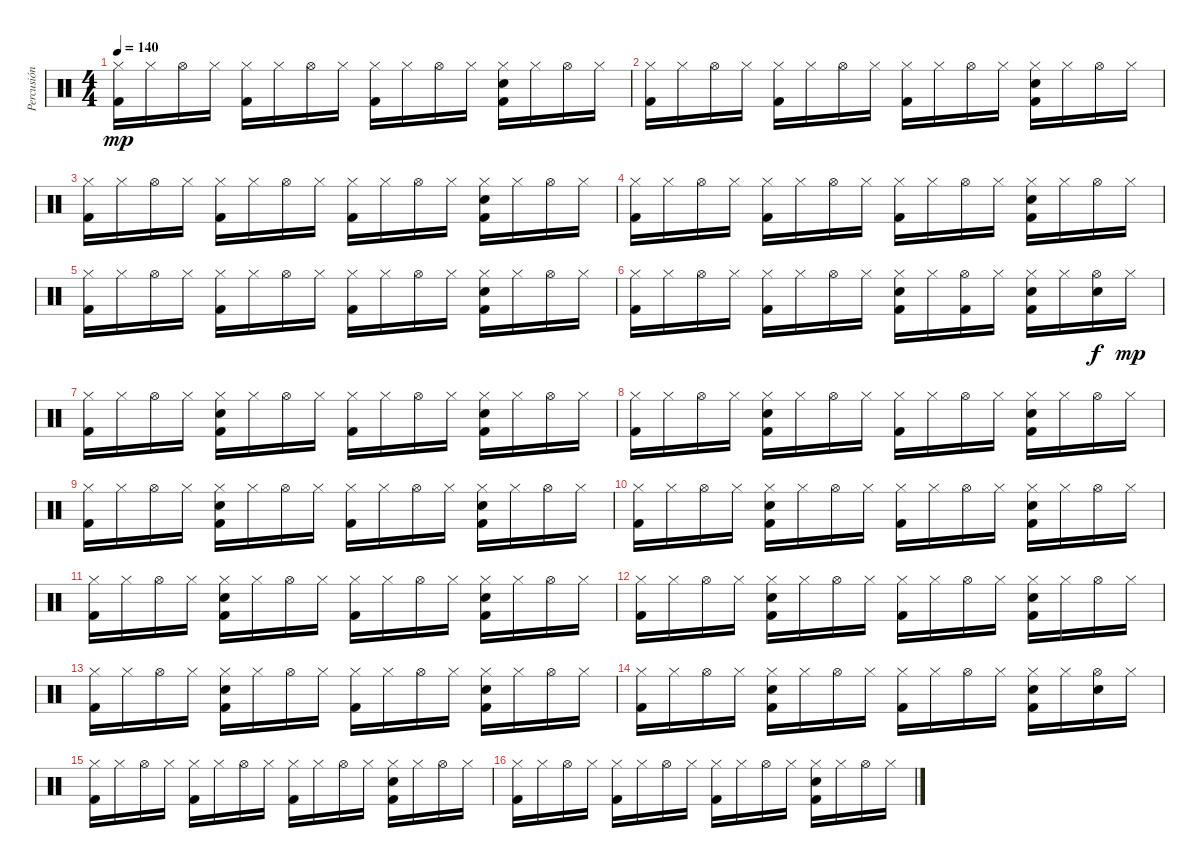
\track ("Percusión" "Percusión") {instrument percussion}
\staff {score}
\articulation defaults
\ts (4 4)
\tempo 140
\clef neutral
\ks c
("Hi-Hat (closed)" "Kick (hit) 2").16{dy mp} "Hi-Hat (closed)".16 "Hi-Hat (open)".16 "Hi-Hat (closed)".16 ("Hi-Hat (closed)" "Kick (hit) 2").16 "Hi-Hat (closed)".16 "Hi-Hat (open)".16 "Hi-Hat (closed)".16 ("Hi-Hat (closed)" "Kick (hit) 2").16 "Hi-Hat (closed)".16 "Hi-Hat (open)".16 "Hi-Hat (closed)".16 ("Hi-Hat (closed)" "Electric Snare (hit)" "Kick (hit) 2").16 "Hi-Hat (closed)".16 "Hi-Hat (open)".16 "Hi-Hat (closed)".16 |
("Hi-Hat (closed)" "Kick (hit) 2").16 "Hi-Hat (closed)".16 "Hi-Hat (open)".16 "Hi-Hat (closed)".16 ("Hi-Hat (closed)" "Kick (hit) 2").16 "Hi-Hat (closed)".16 "Hi-Hat (open)".16 "Hi-Hat (closed)".16 ("Hi-Hat (closed)" "Kick (hit) 2").16 "Hi-Hat (closed)".16 "Hi-Hat (open)".16 "Hi-Hat (closed)".16 ("Hi-Hat (closed)" "Electric Snare (hit)" "Kick (hit) 2").16 "Hi-Hat (closed)".16 "Hi-Hat (open)".16 "Hi-Hat (closed)".16 |
("Hi-Hat (closed)" "Kick (hit) 2").16 "Hi-Hat (closed)".16 "Hi-Hat (open)".16 "Hi-Hat (closed)".16 ("Hi-Hat (closed)" "Kick (hit) 2").16 "Hi-Hat (closed)".16 "Hi-Hat (open)".16 "Hi-Hat (closed)".16 ("Hi-Hat (closed)" "Kick (hit) 2").16 "Hi-Hat (closed)".16 "Hi-Hat (open)".16 "Hi-Hat (closed)".16 ("Hi-Hat (closed)" "Electric Snare (hit)" "Kick (hit) 2").16 "Hi-Hat (closed)".16 "Hi-Hat (open)".16 "Hi-Hat (closed)".16 |
("Hi-Hat (closed)" "Kick (hit) 2").16 "Hi-Hat (closed)".16 "Hi-Hat (open)".16 "Hi-Hat (closed)".16 ("Hi-Hat (closed)" "Kick (hit) 2").16 "Hi-Hat (closed)".16 "Hi-Hat (open)".16 "Hi-Hat (closed)".16 ("Hi-Hat (closed)" "Kick (hit) 2").16 "Hi-Hat (closed)".16 "Hi-Hat (open)".16 "Hi-Hat (closed)".16 ("Hi-Hat (closed)" "Electric Snare (hit)" "Kick (hit) 2").16 "Hi-Hat (closed)".16 "Hi-Hat (open)".16 "Hi-Hat (closed)".16 |
("Hi-Hat (closed)" "Kick (hit) 2").16 "Hi-Hat (closed)".16 "Hi-Hat (open)".16 "Hi-Hat (closed)".16 ("Hi-Hat (closed)" "Kick (hit) 2").16 "Hi-Hat (closed)".16 "Hi-Hat (open)".16 "Hi-Hat (closed)".16 ("Hi-Hat (closed)" "Kick (hit) 2").16 "Hi-Hat (closed)".16 "Hi-Hat (open)".16 "Hi-Hat (closed)".16 ("Hi-Hat (closed)" "Electric Snare (hit)" "Kick (hit) 2").16 "Hi-Hat (closed)".16 "Hi-Hat (open)".16 "Hi-Hat (closed)".16 |
("Hi-Hat (closed)" "Kick (hit) 2").16 "Hi-Hat (closed)".16 "Hi-Hat (open)".16 "Hi-Hat (closed)".16 ("Hi-Hat (closed)" "Kick (hit) 2").16 "Hi-Hat (closed)".16 "Hi-Hat (open)".16 "Hi-Hat (closed)".16 ("Hi-Hat (closed)" "Electric Snare (hit)" "Kick (hit) 2").16 "Hi-Hat (closed)".16 ("Hi-Hat (open)" "Kick (hit) 2").16 "Hi-Hat (closed)".16 ("Hi-Hat (closed)" "Electric Snare (hit)" "Kick (hit) 2").16 "Hi-Hat (closed)".16 ("Hi-Hat (open)" "Electric Snare (hit)").16{dy f} "Hi-Hat (closed)".16{dy mp} |
("Hi-Hat (closed)" "Kick (hit) 2").16 "Hi-Hat (closed)".16 "Hi-Hat (open)".16 "Hi-Hat (closed)".16 ("Hi-Hat (closed)" "Electric Snare (hit)" "Kick (hit) 2").16 "Hi-Hat (closed)".16 "Hi-Hat (open)".16 "Hi-Hat (closed)".16 ("Hi-Hat (closed)" "Kick (hit) 2").16 "Hi-Hat (closed)".16 "Hi-Hat (open)".16 "Hi-Hat (closed)".16 ("Hi-Hat (closed)" "Electric Snare (hit)" "Kick (hit) 2").16 "Hi-Hat (closed)".16 "Hi-Hat (open)".16 "Hi-Hat (closed)".16 |
("Hi-Hat (closed)" "Kick (hit) 2").16 "Hi-Hat (closed)".16 "Hi-Hat (open)".16 "Hi-Hat (closed)".16 ("Hi-Hat (closed)" "Electric Snare (hit)" "Kick (hit) 2").16 "Hi-Hat (closed)".16 "Hi-Hat (open)".16 "Hi-Hat (closed)".16 ("Hi-Hat (closed)" "Kick (hit) 2").16 "Hi-Hat (closed)".16 "Hi-Hat (open)".16 "Hi-Hat (closed)".16 ("Hi-Hat (closed)" "Electric Snare (hit)" "Kick (hit) 2").16 "Hi-Hat (closed)".16 "Hi-Hat (open)".16 "Hi-Hat (closed)".16 |
("Hi-Hat (closed)" "Kick (hit) 2").16 "Hi-Hat (closed)".16 "Hi-Hat (open)".16 "Hi-Hat (closed)".16 ("Hi-Hat (closed)" "Electric Snare (hit)" "Kick (hit) 2").16 "Hi-Hat (closed)".16 "Hi-Hat (open)".16 "Hi-Hat (closed)".16 ("Hi-Hat (closed)" "Kick (hit) 2").16 "Hi-Hat (closed)".16 "Hi-Hat (open)".16 "Hi-Hat (closed)".16 ("Hi-Hat (closed)" "Electric Snare (hit)" "Kick (hit) 2").16 "Hi-Hat (closed)".16 "Hi-Hat (open)".16 "Hi-Hat (closed)".16 |
("Hi-Hat (closed)" "Kick (hit) 2").16 "Hi-Hat (closed)".16 "Hi-Hat (open)".16 "Hi-Hat (closed)".16 ("Hi-Hat (closed)" "Electric Snare (hit)" "Kick (hit) 2").16 "Hi-Hat (closed)".16 "Hi-Hat (open)".16 "Hi-Hat (closed)".16 ("Hi-Hat (closed)" "Kick (hit) 2").16 "Hi-Hat (closed)".16 "Hi-Hat (open)".16 "Hi-Hat (closed)".16 ("Hi-Hat (closed)" "Electric Snare (hit)" "Kick (hit) 2").16 "Hi-Hat (closed)".16 "Hi-Hat (open)".16 "Hi-Hat (closed)".16 |
("Hi-Hat (closed)" "Kick (hit) 2").16 "Hi-Hat (closed)".16 "Hi-Hat (open)".16 "Hi-Hat (closed)".16 ("Hi-Hat (closed)" "Electric Snare (hit)" "Kick (hit) 2").16 "Hi-Hat (closed)".16 "Hi-Hat (open)".16 "Hi-Hat (closed)".16 ("Hi-Hat (closed)" "Kick (hit) 2").16 "Hi-Hat (closed)".16 "Hi-Hat (open)".16 "Hi-Hat (closed)".16 ("Hi-Hat (closed)" "Electric Snare (hit)" "Kick (hit) 2").16 "Hi-Hat (closed)".16 "Hi-Hat (open)".16 "Hi-Hat (closed)".16 |
("Hi-Hat (closed)" "Kick (hit) 2").16 "Hi-Hat (closed)".16 "Hi-Hat (open)".16 "Hi-Hat (closed)".16 ("Hi-Hat (closed)" "Electric Snare (hit)" "Kick (hit) 2").16 "Hi-Hat (closed)".16 "Hi-Hat (open)".16 "Hi-Hat (closed)".16 ("Hi-Hat (closed)" "Kick (hit) 2").16 "Hi-Hat (closed)".16 "Hi-Hat (open)".16 "Hi-Hat (closed)".16 ("Hi-Hat (closed)" "Electric Snare (hit)" "Kick (hit) 2").16 "Hi-Hat (closed)".16 "Hi-Hat (open)".16 "Hi-Hat (closed)".16 |
("Hi-Hat (closed)" "Kick (hit) 2").16 "Hi-Hat (closed)".16 "Hi-Hat (open)".16 "Hi-Hat (closed)".16 ("Hi-Hat (closed)" "Electric Snare (hit)" "Kick (hit) 2").16 "Hi-Hat (closed)".16 "Hi-Hat (open)".16 "Hi-Hat (closed)".16 ("Hi-Hat (closed)" "Kick (hit) 2").16 "Hi-Hat (closed)".16 "Hi-Hat (open)".16 "Hi-Hat (closed)".16 ("Hi-Hat (closed)" "Electric Snare (hit)" "Kick (hit) 2").16 "Hi-Hat (closed)".16 "Hi-Hat (open)".16 "Hi-Hat (closed)".16 |
("Hi-Hat (closed)" "Kick (hit) 2").16 "Hi-Hat (closed)".16 "Hi-Hat (open)".16 "Hi-Hat (closed)".16 ("Hi-Hat (closed)" "Electric Snare (hit)" "Kick (hit) 2").16 "Hi-Hat (closed)".16 "Hi-Hat (open)".16 "Hi-Hat (closed)".16 ("Hi-Hat (closed)" "Kick (hit) 2").16 "Hi-Hat (closed)".16 "Hi-Hat (open)".16 "Hi-Hat (closed)".16 ("Hi-Hat (closed)" "Electric Snare (hit)" "Kick (hit) 2").16 "Hi-Hat (closed)".16 ("Hi-Hat (open)" "Electric Snare (hit)").16 "Hi-Hat (closed)".16 |
("Hi-Hat (closed)" "Kick (hit) 2").16 "Hi-Hat (closed)".16 "Hi-Hat (open)".16 "Hi-Hat (closed)".16 ("Hi-Hat (closed)" "Kick (hit) 2").16 "Hi-Hat (closed)".16 "Hi-Hat (open)".16 "Hi-Hat (closed)".16 ("Hi-Hat (closed)" "Kick (hit) 2").16 "Hi-Hat (closed)".16 "Hi-Hat (open)".16 "Hi-Hat (closed)".16 ("Hi-Hat (closed)" "Electric Snare (hit)" "Kick (hit) 2").16 "Hi-Hat (closed)".16 "Hi-Hat (open)".16 "Hi-Hat (closed)".16 |
("Hi-Hat (closed)" "Kick (hit) 2").16 "Hi-Hat (closed)".16 "Hi-Hat (open)".16 "Hi-Hat (closed)".16 ("Hi-Hat (closed)" "Kick (hit) 2").16 "Hi-Hat (closed)".16 "Hi-Hat (open)".16 "Hi-Hat (closed)".16 ("Hi-Hat (closed)" "Kick (hit) 2").16 "Hi-Hat (closed)".16 "Hi-Hat (open)".16 "Hi-Hat (closed)".16 ("Hi-Hat (closed)" "Electric Snare (hit)" "Kick (hit) 2").16 "Hi-Hat (closed)".16 "Hi-Hat (open)".16 "Hi-Hat (closed)".16
